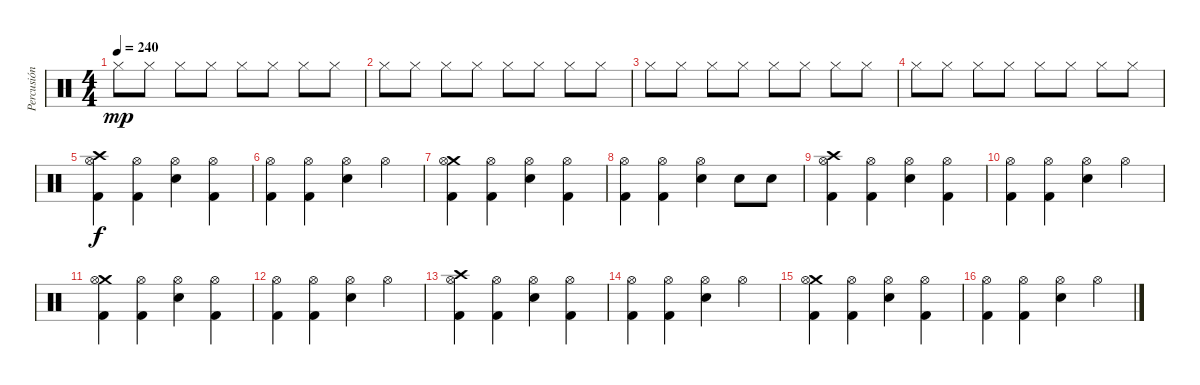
\track ("Percusión" "Percusión") {instrument percussion}
\staff {score}
\articulation defaults
\ts (4 4)
\tempo 240
\clef neutral
\ks c "Hi-Hat (closed)".8{dy mp} "Hi-Hat (closed)".8 "Hi-Hat (closed)".8 "Hi-Hat (closed)".8 "Hi-Hat (closed)".8 "Hi-Hat (closed)".8 "Hi-Hat (closed)".8 "Hi-Hat (closed)".8
|
"Hi-Hat (closed)".8 "Hi-Hat (closed)".8 "Hi-Hat (closed)".8 "Hi-Hat (closed)".8 "Hi-Hat (closed)".8 "Hi-Hat (closed)".8 "Hi-Hat (closed)".8 "Hi-Hat (closed)".8 |
"Hi-Hat (closed)".8 "Hi-Hat (closed)".8 "Hi-Hat (closed)".8 "Hi-Hat (closed)".8 "Hi-Hat (closed)".8 "Hi-Hat (closed)".8 "Hi-Hat (closed)".8 "Hi-Hat (closed)".8 |
"Hi-Hat (closed)".8 "Hi-Hat (closed)".8 "Hi-Hat (closed)".8 "Hi-Hat (closed)".8 "Hi-Hat (closed)".8 "Hi-Hat (closed)".8 "Hi-Hat (closed)".8 "Hi-Hat (closed)".8 |
("Crash high (hit)" "Hi-Hat (open)" "Kick (hit) 2").4{dy f} ("Hi-Hat (open)" "Kick (hit) 2").4 ("Hi-Hat (open)" "Snare (hit) 2").4 ("Hi-Hat (open)" "Kick (hit) 2").4 |
("Hi-Hat (open)" "Kick (hit) 2").4 ("Hi-Hat (open)" "Kick (hit) 2").4 ("Hi-Hat (open)" "Snare (hit) 2").4 "Hi-Hat (open)".4 |
("Crash medium (hit)" "Hi-Hat (open)" "Kick (hit) 2").4 ("Hi-Hat (open)" "Kick (hit) 2").4 ("Hi-Hat (open)" "Snare (hit) 2").4 ("Hi-Hat (open)" "Kick (hit) 2").4 |
("Hi-Hat (open)" "Kick (hit) 2").4 ("Hi-Hat (open)" "Kick (hit) 2").4 ("Hi-Hat (open)" "Snare (hit) 2").4 "Snare (hit) 2".8 "Snare (hit) 2".8 |
("Crash high (hit)" "Hi-Hat (open)" "Kick (hit) 2").4 ("Hi-Hat (open)" "Kick (hit) 2").4 ("Hi-Hat (open)" "Snare (hit) 2").4 ("Hi-Hat (open)" "Kick (hit) 2").4 |
("Hi-Hat (open)" "Kick (hit) 2").4 ("Hi-Hat (open)" "Kick (hit) 2").4 ("Hi-Hat (open)" "Snare (hit) 2").4 "Hi-Hat (open)".4 |
("Crash medium (hit)" "Hi-Hat (open)" "Kick (hit) 2").4 ("Hi-Hat (open)" "Kick (hit) 2").4 ("Hi-Hat (open)" "Snare (hit) 2").4 ("Hi-Hat (open)" "Kick (hit) 2").4 |
("Hi-Hat (open)" "Kick (hit) 2").4 ("Hi-Hat (open)" "Kick (hit) 2").4 ("Hi-Hat (open)" "Snare (hit) 2").4 "Hi-Hat (open)".4 |
("Crash high (hit)" "Hi-Hat (open)" "Kick (hit) 2").4 ("Hi-Hat (open)" "Kick (hit) 2").4 ("Hi-Hat (open)" "Snare (hit) 2").4 ("Hi-Hat (open)" "Kick (hit) 2").4 |
("Hi-Hat (open)" "Kick (hit) 2").4 ("Hi-Hat (open)" "Kick (hit) 2").4 ("Hi-Hat (open)" "Snare (hit) 2").4 "Hi-Hat (open)".4 |
("Crash medium (hit)" "Hi-Hat (open)" "Kick (hit) 2").4 ("Hi-Hat (open)" "Kick (hit) 2").4 ("Hi-Hat (open)" "Snare (hit) 2").4 ("Hi-Hat (open)" "Kick (hit) 2").4 |
("Hi-Hat (open)" "Kick (hit) 2").4 ("Hi-Hat (open)" "Kick (hit) 2").4 ("Hi-Hat (open)" "Snare (hit) 2").4 "Hi-Hat (open)".4
